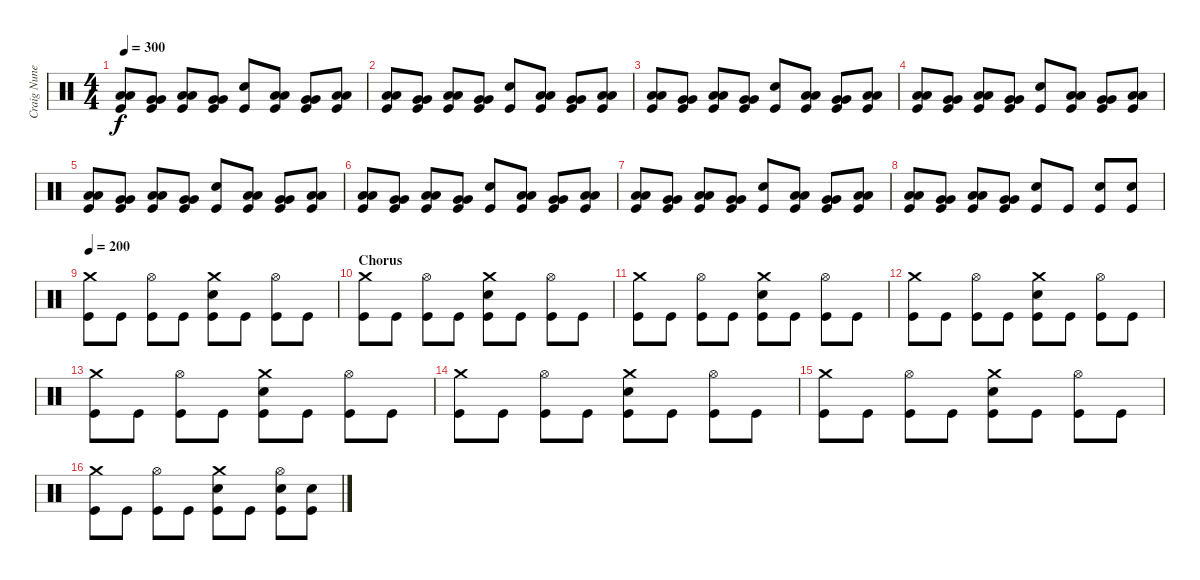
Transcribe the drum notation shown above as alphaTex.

\track ("Craig Nunenmacher" "Craig Nune") {instrument percussion}
\staff {score}
\articulation defaults
\ts (4 4)
\tempo 300
\clef neutral
\ks c
("Low Tom (hit)" "Low Tom (hit)" "Kick (hit)").8{dy f} ("Very Low Tom (hit)" "Very Low Tom (hit)" "Kick (hit)").8 ("Low Tom (hit)" "Low Tom (hit)" "Kick (hit)").8 ("Very Low Tom (hit)" "Very Low Tom (hit)" "Kick (hit)").8 ("Snare (hit) 2" "Kick (hit)").8 ("Low Tom (hit)" "Low Tom (hit)" "Kick (hit)").8 ("Very Low Tom (hit)" "Very Low Tom (hit)" "Kick (hit)").8 ("Low Tom (hit)" "Low Tom (hit)" "Kick (hit)").8 |
("Low Tom (hit)" "Low Tom (hit)" "Kick (hit)").8 ("Very Low Tom (hit)" "Very Low Tom (hit)" "Kick (hit)").8 ("Low Tom (hit)" "Low Tom (hit)" "Kick (hit)").8 ("Very Low Tom (hit)" "Very Low Tom (hit)" "Kick (hit)").8 ("Snare (hit) 2" "Kick (hit)").8 ("Low Tom (hit)" "Low Tom (hit)" "Kick (hit)").8 ("Very Low Tom (hit)" "Very Low Tom (hit)" "Kick (hit)").8 ("Low Tom (hit)" "Low Tom (hit)" "Kick (hit)").8 |
("Low Tom (hit)" "Low Tom (hit)" "Kick (hit)").8 ("Very Low Tom (hit)" "Very Low Tom (hit)" "Kick (hit)").8 ("Low Tom (hit)" "Low Tom (hit)" "Kick (hit)").8 ("Very Low Tom (hit)" "Very Low Tom (hit)" "Kick (hit)").8 ("Snare (hit) 2" "Kick (hit)").8 ("Low Tom (hit)" "Low Tom (hit)" "Kick (hit)").8 ("Very Low Tom (hit)" "Very Low Tom (hit)" "Kick (hit)").8 ("Low Tom (hit)" "Low Tom (hit)" "Kick (hit)").8 |
("Low Tom (hit)" "Low Tom (hit)" "Kick (hit)").8 ("Very Low Tom (hit)" "Very Low Tom (hit)" "Kick (hit)").8 ("Low Tom (hit)" "Low Tom (hit)" "Kick (hit)").8 ("Very Low Tom (hit)" "Very Low Tom (hit)" "Kick (hit)").8 ("Snare (hit) 2" "Kick (hit)").8 ("Low Tom (hit)" "Low Tom (hit)" "Kick (hit)").8 ("Very Low Tom (hit)" "Very Low Tom (hit)" "Kick (hit)").8 ("Low Tom (hit)" "Low Tom (hit)" "Kick (hit)").8 |
("Low Tom (hit)" "Low Tom (hit)" "Kick (hit)").8 ("Very Low Tom (hit)" "Very Low Tom (hit)" "Kick (hit)").8 ("Low Tom (hit)" "Low Tom (hit)" "Kick (hit)").8 ("Very Low Tom (hit)" "Very Low Tom (hit)" "Kick (hit)").8 ("Snare (hit) 2" "Kick (hit)").8 ("Low Tom (hit)" "Low Tom (hit)" "Kick (hit)").8 ("Very Low Tom (hit)" "Very Low Tom (hit)" "Kick (hit)").8 ("Low Tom (hit)" "Low Tom (hit)" "Kick (hit)").8 |
("Low Tom (hit)" "Low Tom (hit)" "Kick (hit)").8 ("Very Low Tom (hit)" "Very Low Tom (hit)" "Kick (hit)").8 ("Low Tom (hit)" "Low Tom (hit)" "Kick (hit)").8 ("Very Low Tom (hit)" "Very Low Tom (hit)" "Kick (hit)").8 ("Snare (hit) 2" "Kick (hit)").8 ("Low Tom (hit)" "Low Tom (hit)" "Kick (hit)").8 ("Very Low Tom (hit)" "Very Low Tom (hit)" "Kick (hit)").8 ("Low Tom (hit)" "Low Tom (hit)" "Kick (hit)").8 |
("Low Tom (hit)" "Low Tom (hit)" "Kick (hit)").8 ("Very Low Tom (hit)" "Very Low Tom (hit)" "Kick (hit)").8 ("Low Tom (hit)" "Low Tom (hit)" "Kick (hit)").8 ("Very Low Tom (hit)" "Very Low Tom (hit)" "Kick (hit)").8 ("Snare (hit) 2" "Kick (hit)").8 ("Low Tom (hit)" "Low Tom (hit)" "Kick (hit)").8 ("Very Low Tom (hit)" "Very Low Tom (hit)" "Kick (hit)").8 ("Low Tom (hit)" "Low Tom (hit)" "Kick (hit)").8 |
("Low Tom (hit)" "Low Tom (hit)" "Kick (hit)").8 ("Very Low Tom (hit)" "Very Low Tom (hit)" "Kick (hit)").8 ("Low Tom (hit)" "Low Tom (hit)" "Kick (hit)").8 ("Very Low Tom (hit)" "Very Low Tom (hit)" "Kick (hit)").8 ("Snare (hit) 2" "Kick (hit)").8 "Kick (hit)".8 ("Snare (hit) 2" "Kick (hit)").8 ("Snare (hit) 2" "Kick (hit)").8 |
\tempo 200
("Crash medium (hit)" "Kick (hit)").8 "Kick (hit)".8 ("Hi-Hat (open)" "Kick (hit)").8 "Kick (hit)".8 ("Crash medium (hit)" "Snare (hit) 2" "Kick (hit)").8 "Kick (hit)".8 ("Hi-Hat (open)" "Kick (hit)").8 "Kick (hit)".8 |
\section ("" "Chorus")
("Crash medium (hit)" "Kick (hit)").8 "Kick (hit)".8 ("Hi-Hat (open)" "Kick (hit)").8 "Kick (hit)".8 ("Crash medium (hit)" "Snare (hit) 2" "Kick (hit)").8 "Kick (hit)".8 ("Hi-Hat (open)" "Kick (hit)").8 "Kick (hit)".8 |
("Crash medium (hit)" "Kick (hit)").8 "Kick (hit)".8 ("Hi-Hat (open)" "Kick (hit)").8 "Kick (hit)".8 ("Crash medium (hit)" "Snare (hit) 2" "Kick (hit)").8 "Kick (hit)".8 ("Hi-Hat (open)" "Kick (hit)").8 "Kick (hit)".8 |
("Crash medium (hit)" "Kick (hit)").8 "Kick (hit)".8 ("Hi-Hat (open)" "Kick (hit)").8 "Kick (hit)".8 ("Crash medium (hit)" "Snare (hit) 2" "Kick (hit)").8 "Kick (hit)".8 ("Hi-Hat (open)" "Kick (hit)").8 "Kick (hit)".8 |
("Crash medium (hit)" "Kick (hit)").8 "Kick (hit)".8 ("Hi-Hat (open)" "Kick (hit)").8 "Kick (hit)".8 ("Crash medium (hit)" "Snare (hit) 2" "Kick (hit)").8 "Kick (hit)".8 ("Hi-Hat (open)" "Kick (hit)").8 "Kick (hit)".8 |
("Crash medium (hit)" "Kick (hit)").8 "Kick (hit)".8 ("Hi-Hat (open)" "Kick (hit)").8 "Kick (hit)".8 ("Crash medium (hit)" "Snare (hit) 2" "Kick (hit)").8 "Kick (hit)".8 ("Hi-Hat (open)" "Kick (hit)").8 "Kick (hit)".8 |
("Crash medium (hit)" "Kick (hit)").8 "Kick (hit)".8 ("Hi-Hat (open)" "Kick (hit)").8 "Kick (hit)".8 ("Crash medium (hit)" "Snare (hit) 2" "Kick (hit)").8 "Kick (hit)".8 ("Hi-Hat (open)" "Kick (hit)").8 "Kick (hit)".8 |
("Crash medium (hit)" "Kick (hit)").8 "Kick (hit)".8 ("Hi-Hat (open)" "Kick (hit)").8 "Kick (hit)".8 ("Crash medium (hit)" "Snare (hit) 2" "Kick (hit)").8 "Kick (hit)".8 ("Hi-Hat (open)" "Snare (hit) 2" "Kick (hit)").8 ("Snare (hit) 2" "Kick (hit)").8
